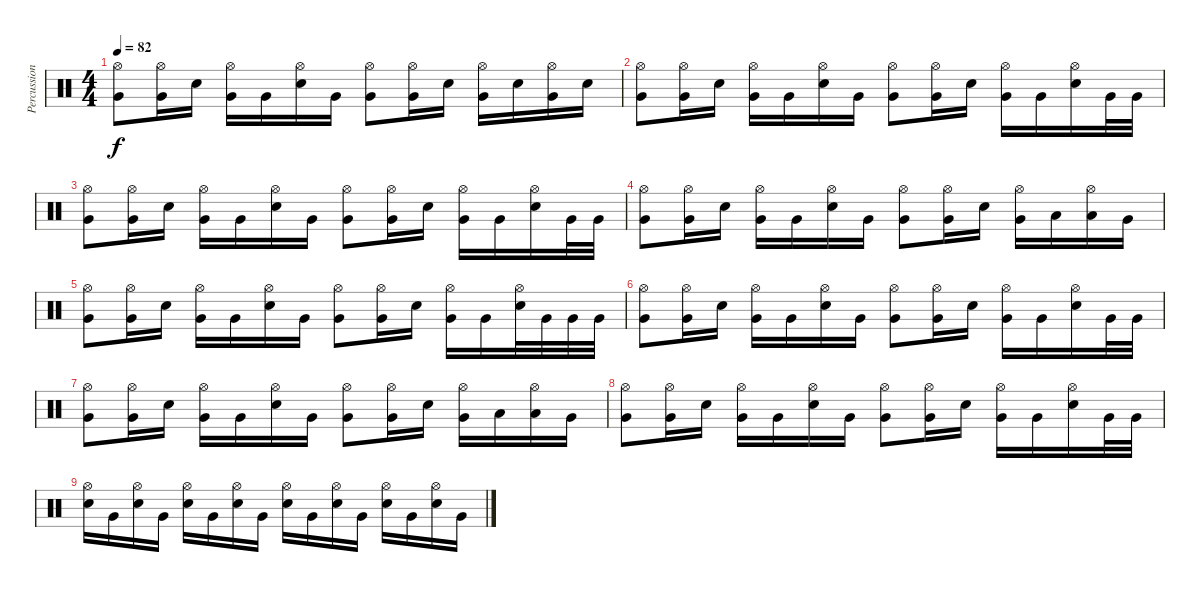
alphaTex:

\track ("Percussion" "Percussion") {instrument percussion}
\staff {score}
\articulation defaults
\ts (4 4)
\tempo 82
\clef neutral
\ks c
("Hi-Hat (open)" "Very Low Tom (hit)").8{dy f} ("Hi-Hat (open)" "Very Low Tom (hit)").16 "Snare (hit) 2".16 ("Hi-Hat (open)" "Very Low Tom (hit)").16 "Very Low Tom (hit)".16 ("Hi-Hat (open)" "Snare (hit) 2").16 "Very Low Tom (hit)".16 ("Hi-Hat (open)" "Very Low Tom (hit)").8 ("Hi-Hat (open)" "Very Low Tom (hit)").16 "Snare (hit) 2".16 ("Hi-Hat (open)" "Very Low Tom (hit)").16 "Snare (hit) 2".16 ("Hi-Hat (open)" "Very Low Tom (hit)").16 "Snare (hit) 2".16 |
("Hi-Hat (open)" "Very Low Tom (hit)").8 ("Hi-Hat (open)" "Very Low Tom (hit)").16 "Snare (hit) 2".16 ("Hi-Hat (open)" "Very Low Tom (hit)").16 "Very Low Tom (hit)".16 ("Hi-Hat (open)" "Snare (hit) 2").16 "Very Low Tom (hit)".16 ("Hi-Hat (open)" "Very Low Tom (hit)").8 ("Hi-Hat (open)" "Very Low Tom (hit)").16 "Snare (hit) 2".16 ("Hi-Hat (open)" "Very Low Tom (hit)").16 "Very Low Tom (hit)".16 ("Hi-Hat (open)" "Snare (hit) 2").16 "Very Low Tom (hit)".32 "Very Low Tom (hit)".32 |
("Hi-Hat (open)" "Very Low Tom (hit)").8 ("Hi-Hat (open)" "Very Low Tom (hit)").16 "Snare (hit) 2".16 ("Hi-Hat (open)" "Very Low Tom (hit)").16 "Very Low Tom (hit)".16 ("Hi-Hat (open)" "Snare (hit) 2").16 "Very Low Tom (hit)".16 ("Hi-Hat (open)" "Very Low Tom (hit)").8 ("Hi-Hat (open)" "Very Low Tom (hit)").16 "Snare (hit) 2".16 ("Hi-Hat (open)" "Very Low Tom (hit)").16 "Very Low Tom (hit)".16 ("Hi-Hat (open)" "Snare (hit) 2").16 "Very Low Tom (hit)".32 "Very Low Tom (hit)".32 |
("Hi-Hat (open)" "Very Low Tom (hit)").8 ("Hi-Hat (open)" "Very Low Tom (hit)").16 "Snare (hit) 2".16 ("Hi-Hat (open)" "Very Low Tom (hit)").16 "Very Low Tom (hit)".16 ("Hi-Hat (open)" "Snare (hit) 2").16 "Very Low Tom (hit)".16 ("Hi-Hat (open)" "Very Low Tom (hit)").8 ("Hi-Hat (open)" "Very Low Tom (hit)").16 "Snare (hit) 2".16 ("Hi-Hat (open)" "Very Low Tom (hit)").16 "Low Tom (hit)".16 ("Hi-Hat (open)" "Low Tom (hit)").16 "Very Low Tom (hit)".16 |
("Hi-Hat (open)" "Very Low Tom (hit)").8 ("Hi-Hat (open)" "Very Low Tom (hit)").16 "Snare (hit) 2".16 ("Hi-Hat (open)" "Very Low Tom (hit)").16 "Very Low Tom (hit)".16 ("Hi-Hat (open)" "Snare (hit) 2").16 "Very Low Tom (hit)".16 ("Hi-Hat (open)" "Very Low Tom (hit)").8 ("Hi-Hat (open)" "Very Low Tom (hit)").16 "Snare (hit) 2".16 ("Hi-Hat (open)" "Very Low Tom (hit)").16 "Very Low Tom (hit)".16 ("Hi-Hat (open)" "Snare (hit) 2").32 "Very Low Tom (hit)".32 "Very Low Tom (hit)".32 "Very Low Tom (hit)".32 |
("Hi-Hat (open)" "Very Low Tom (hit)").8 ("Hi-Hat (open)" "Very Low Tom (hit)").16 "Snare (hit) 2".16 ("Hi-Hat (open)" "Very Low Tom (hit)").16 "Very Low Tom (hit)".16 ("Hi-Hat (open)" "Snare (hit) 2").16 "Very Low Tom (hit)".16 ("Hi-Hat (open)" "Very Low Tom (hit)").8 ("Hi-Hat (open)" "Very Low Tom (hit)").16 "Snare (hit) 2".16 ("Hi-Hat (open)" "Very Low Tom (hit)").16 "Very Low Tom (hit)".16 ("Hi-Hat (open)" "Snare (hit) 2").16 "Very Low Tom (hit)".32 "Very Low Tom (hit)".32 |
("Hi-Hat (open)" "Very Low Tom (hit)").8 ("Hi-Hat (open)" "Very Low Tom (hit)").16 "Snare (hit) 2".16 ("Hi-Hat (open)" "Very Low Tom (hit)").16 "Very Low Tom (hit)".16 ("Hi-Hat (open)" "Snare (hit) 2").16 "Very Low Tom (hit)".16 ("Hi-Hat (open)" "Very Low Tom (hit)").8 ("Hi-Hat (open)" "Very Low Tom (hit)").16 "Snare (hit) 2".16 ("Hi-Hat (open)" "Very Low Tom (hit)").16 "Low Tom (hit)".16 ("Hi-Hat (open)" "Low Tom (hit)").16 "Very Low Tom (hit)".16 |
("Hi-Hat (open)" "Very Low Tom (hit)").8 ("Hi-Hat (open)" "Very Low Tom (hit)").16 "Snare (hit) 2".16 ("Hi-Hat (open)" "Very Low Tom (hit)").16 "Very Low Tom (hit)".16 ("Hi-Hat (open)" "Snare (hit) 2").16 "Very Low Tom (hit)".16 ("Hi-Hat (open)" "Very Low Tom (hit)").8 ("Hi-Hat (open)" "Very Low Tom (hit)").16 "Snare (hit) 2".16 ("Hi-Hat (open)" "Very Low Tom (hit)").16 "Very Low Tom (hit)".16 ("Hi-Hat (open)" "Snare (hit) 2").16 "Very Low Tom (hit)".32 "Very Low Tom (hit)".32 |
("Hi-Hat (open)" "Snare (hit) 2").16 "Very Low Tom (hit)".16 ("Hi-Hat (open)" "Snare (hit) 2").16 "Very Low Tom (hit)".16 ("Hi-Hat (open)" "Snare (hit) 2").16 "Very Low Tom (hit)".16 ("Hi-Hat (open)" "Snare (hit) 2").16 "Very Low Tom (hit)".16 ("Hi-Hat (open)" "Snare (hit) 2").16 "Very Low Tom (hit)".16 ("Hi-Hat (open)" "Snare (hit) 2").16 "Very Low Tom (hit)".16 ("Hi-Hat (open)" "Snare (hit) 2").16 "Very Low Tom (hit)".16 ("Hi-Hat (open)" "Snare (hit) 2").16 "Very Low Tom (hit)".16
